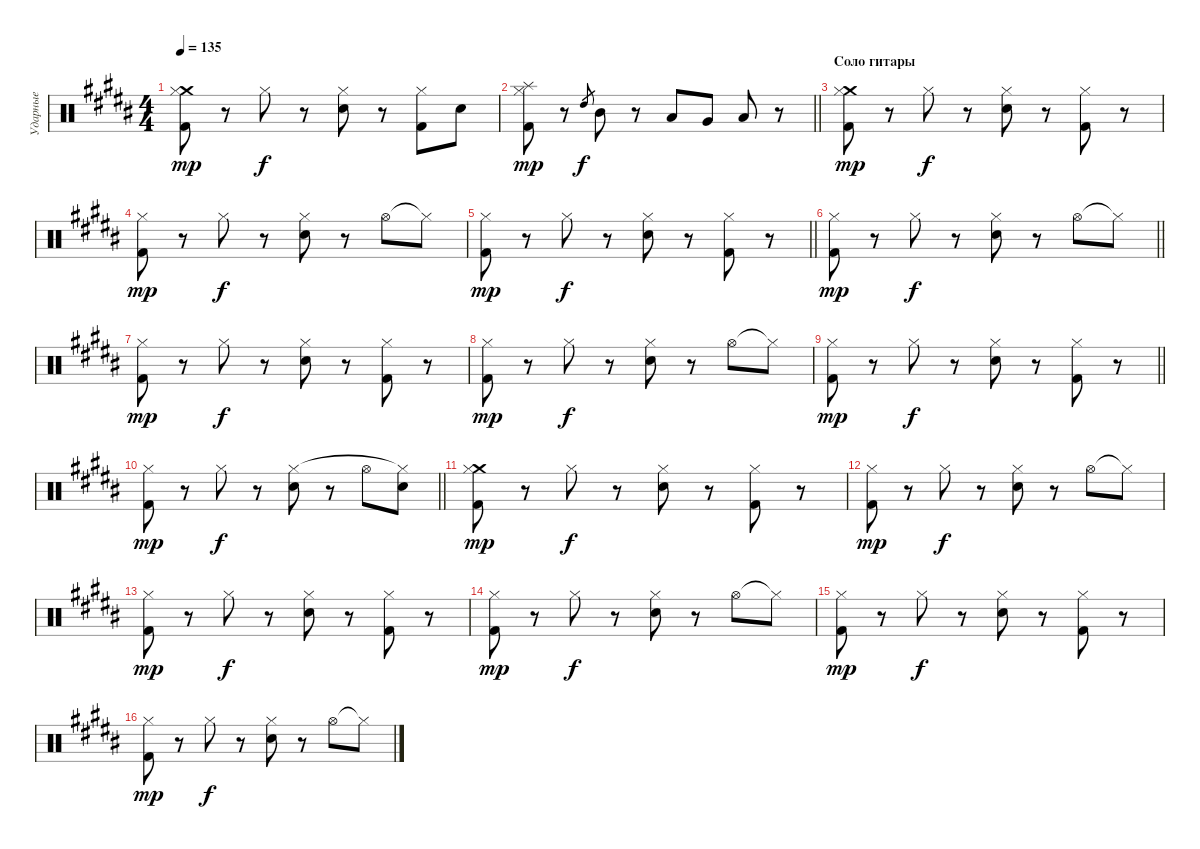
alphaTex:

\track ("Ударные" "Ударные") {instrument percussion}
\staff {score}
\articulation defaults
\ts (4 4)
\tempo 135
\clef neutral
\ks g#minor
("Crash medium (hit)" "Kick (hit) 2" "Hi-Hat (closed)").8{dy mp} r.8 "Hi-Hat (closed)".8{dy f} r.8 ("Electric Snare (hit)" "Hi-Hat (closed)").8 r.8 ("Kick (hit) 2" "Hi-Hat (closed)").8 "Electric Snare (hit)".8 |
\barLineRight lightlight
("Splash (hit)" "Kick (hit) 2" "Hi-Hat (closed)").8{dy mp} r.8 "High Tom (hit)".8{gr dy f} "Mid Tom (hit)".8 r.8 "Low Tom (hit)".8 "Very Low Tom (hit)".8 "Low Floor Tom (hit)".8 r.8 |
\section ("" "Соло гитары")
("Crash medium (hit)" "Kick (hit) 2" "Hi-Hat (closed)").8{dy mp} r.8 "Hi-Hat (closed)".8{dy f} r.8 ("Electric Snare (hit)" "Hi-Hat (closed)").8 r.8 ("Kick (hit) 2" "Hi-Hat (closed)").8 r.8 |
("Kick (hit) 2" "Hi-Hat (closed)").8{dy mp} r.8 "Hi-Hat (closed)".8{dy f} r.8 ("Electric Snare (hit)" "Hi-Hat (closed)").8 r.8 "Hi-Hat (open)".8 "Hi-Hat (closed)"{t}.8 |
\barLineRight lightlight
("Kick (hit) 2" "Hi-Hat (closed)").8{dy mp} r.8 "Hi-Hat (closed)".8{dy f} r.8 ("Electric Snare (hit)" "Hi-Hat (closed)").8 r.8 ("Kick (hit) 2" "Hi-Hat (closed)").8 r.8 |
\barLineRight lightlight
("Kick (hit) 2" "Hi-Hat (closed)").8{dy mp} r.8 "Hi-Hat (closed)".8{dy f} r.8 ("Electric Snare (hit)" "Hi-Hat (closed)").8 r.8 "Hi-Hat (open)".8 "Hi-Hat (closed)"{t}.8 |
("Kick (hit) 2" "Hi-Hat (closed)").8{dy mp} r.8 "Hi-Hat (closed)".8{dy f} r.8 ("Electric Snare (hit)" "Hi-Hat (closed)").8 r.8 ("Kick (hit) 2" "Hi-Hat (closed)").8 r.8 |
("Kick (hit) 2" "Hi-Hat (closed)").8{dy mp} r.8 "Hi-Hat (closed)".8{dy f} r.8 ("Electric Snare (hit)" "Hi-Hat (closed)").8 r.8 "Hi-Hat (open)".8 "Hi-Hat (closed)"{t}.8 |
\barLineRight lightlight
("Kick (hit) 2" "Hi-Hat (closed)").8{dy mp} r.8 "Hi-Hat (closed)".8{dy f} r.8 ("Electric Snare (hit)" "Hi-Hat (closed)").8 r.8 ("Kick (hit) 2" "Hi-Hat (closed)").8 r.8 |
\barLineRight lightlight
("Kick (hit) 2" "Hi-Hat (closed)").8{dy mp} r.8 "Hi-Hat (closed)".8{dy f} r.8 ("Electric Snare (hit)" "Hi-Hat (closed)").8 r.8 "Hi-Hat (open)".8 ("Electric Snare (hit)" "Hi-Hat (closed)"{t}).8 |
("Crash medium (hit)" "Kick (hit) 2" "Hi-Hat (closed)").8{dy mp} r.8 "Hi-Hat (closed)".8{dy f} r.8 ("Electric Snare (hit)" "Hi-Hat (closed)").8 r.8 ("Kick (hit) 2" "Hi-Hat (closed)").8 r.8 |
("Kick (hit) 2" "Hi-Hat (closed)").8{dy mp} r.8 "Hi-Hat (closed)".8{dy f} r.8 ("Electric Snare (hit)" "Hi-Hat (closed)").8 r.8 "Hi-Hat (open)".8 "Hi-Hat (closed)"{t}.8 |
("Kick (hit) 2" "Hi-Hat (closed)").8{dy mp} r.8 "Hi-Hat (closed)".8{dy f} r.8 ("Electric Snare (hit)" "Hi-Hat (closed)").8 r.8 ("Kick (hit) 2" "Hi-Hat (closed)").8 r.8 |
("Kick (hit) 2" "Hi-Hat (closed)").8{dy mp} r.8 "Hi-Hat (closed)".8{dy f} r.8 ("Electric Snare (hit)" "Hi-Hat (closed)").8 r.8 "Hi-Hat (open)".8 "Hi-Hat (closed)"{t}.8 |
("Kick (hit) 2" "Hi-Hat (closed)").8{dy mp} r.8 "Hi-Hat (closed)".8{dy f} r.8 ("Electric Snare (hit)" "Hi-Hat (closed)").8 r.8 ("Kick (hit) 2" "Hi-Hat (closed)").8 r.8 |
("Kick (hit) 2" "Hi-Hat (closed)").8{dy mp} r.8 "Hi-Hat (closed)".8{dy f} r.8 ("Electric Snare (hit)" "Hi-Hat (closed)").8 r.8 "Hi-Hat (open)".8 "Hi-Hat (closed)"{t}.8
